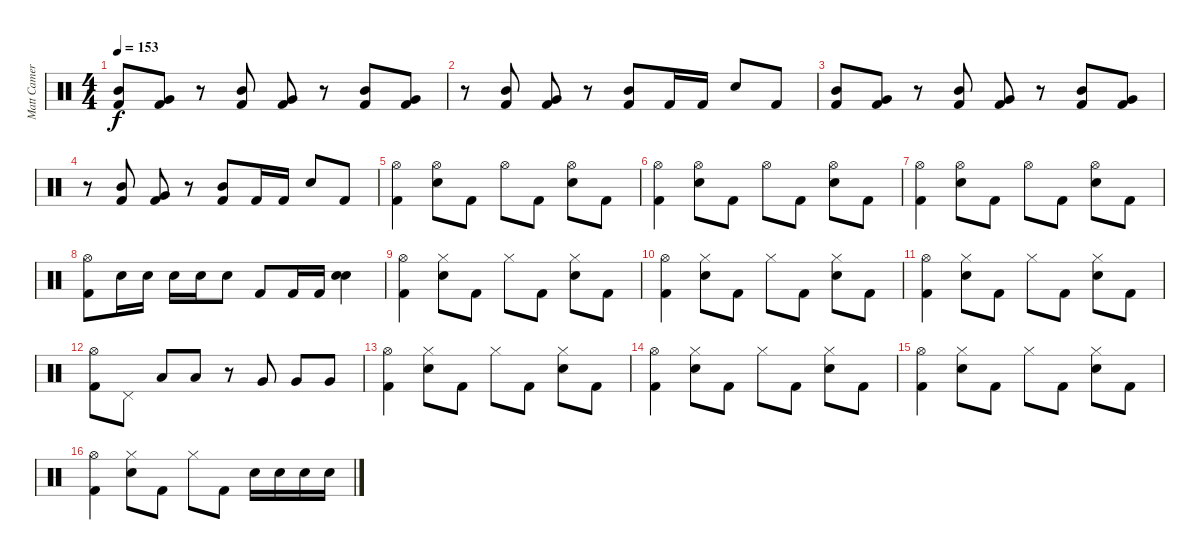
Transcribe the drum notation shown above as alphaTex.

\track ("Matt Cameron" "Matt Camer") {instrument percussion}
\staff {score}
\articulation defaults
\ts (4 4)
\tempo 153
\clef neutral
\ks c
("Mid Tom (hit)" "Kick (hit) 2").8{dy f} ("Very Low Tom (hit)" "Kick (hit) 2").8 r.8 ("Mid Tom (hit)" "Kick (hit) 2").8 ("Very Low Tom (hit)" "Kick (hit) 2").8 r.8 ("Mid Tom (hit)" "Kick (hit) 2").8 ("Very Low Tom (hit)" "Kick (hit) 2").8 |
r.8 ("Mid Tom (hit)" "Kick (hit) 2").8 ("Very Low Tom (hit)" "Kick (hit) 2").8 r.8 ("Mid Tom (hit)" "Kick (hit) 2").8 "Kick (hit) 2".16 "Kick (hit) 2".16 "Electric Snare (hit)".8 "Kick (hit) 2".8 |
("Mid Tom (hit)" "Kick (hit) 2").8 ("Very Low Tom (hit)" "Kick (hit) 2").8 r.8 ("Mid Tom (hit)" "Kick (hit) 2").8 ("Very Low Tom (hit)" "Kick (hit) 2").8 r.8 ("Mid Tom (hit)" "Kick (hit) 2").8 ("Very Low Tom (hit)" "Kick (hit) 2").8 |
r.8 ("Mid Tom (hit)" "Kick (hit) 2").8 ("Very Low Tom (hit)" "Kick (hit) 2").8 r.8 ("Mid Tom (hit)" "Kick (hit) 2").8 "Kick (hit) 2".16 "Kick (hit) 2".16 "Electric Snare (hit)".8 "Kick (hit) 2".8 |
("Hi-Hat (open)" "Kick (hit) 2").4 ("Hi-Hat (open)" "Electric Snare (hit)").8 "Kick (hit) 2".8 "Hi-Hat (open)".8 "Kick (hit) 2".8 ("Hi-Hat (open)" "Electric Snare (hit)").8 "Kick (hit) 2".8 |
("Hi-Hat (open)" "Kick (hit) 2").4 ("Hi-Hat (open)" "Electric Snare (hit)").8 "Kick (hit) 2".8 "Hi-Hat (open)".8 "Kick (hit) 2".8 ("Hi-Hat (open)" "Electric Snare (hit)").8 "Kick (hit) 2".8 |
("Hi-Hat (open)" "Kick (hit) 2").4 ("Hi-Hat (open)" "Electric Snare (hit)").8 "Kick (hit) 2".8 "Hi-Hat (open)".8 "Kick (hit) 2".8 ("Hi-Hat (open)" "Electric Snare (hit)").8 "Kick (hit) 2".8 |
("Hi-Hat (open)" "Kick (hit) 2").8 "Electric Snare (hit)".16 "Electric Snare (hit)".16 "Electric Snare (hit)".16 "Electric Snare (hit)".16 "Electric Snare (hit)".8 "Kick (hit) 2".8 "Kick (hit) 2".16 "Kick (hit) 2".16 ("Electric Snare (hit)" "Electric Snare (hit)").4 |
("Hi-Hat (open)" "Kick (hit) 2").4 ("Hi-Hat (closed)" "Electric Snare (hit)").8 "Kick (hit) 2".8 "Hi-Hat (closed)".8 "Kick (hit) 2".8 ("Hi-Hat (closed)" "Electric Snare (hit)").8 "Kick (hit) 2".8 |
("Hi-Hat (open)" "Kick (hit) 2").4 ("Hi-Hat (closed)" "Electric Snare (hit)").8 "Kick (hit) 2".8 "Hi-Hat (closed)".8 "Kick (hit) 2".8 ("Hi-Hat (closed)" "Electric Snare (hit)").8 "Kick (hit) 2".8 |
("Hi-Hat (open)" "Kick (hit) 2").4 ("Hi-Hat (closed)" "Electric Snare (hit)").8 "Kick (hit) 2".8 "Hi-Hat (closed)".8 "Kick (hit) 2".8 ("Hi-Hat (closed)" "Electric Snare (hit)").8 "Kick (hit) 2".8 |
("Hi-Hat (open)" "Kick (hit) 2").8 "Pedal Hi-Hat (hit)".8 "Low Floor Tom (hit)".8 "Low Floor Tom (hit)".8 r.8 "Very Low Tom (hit)".8 "Very Low Tom (hit)".8 "Very Low Tom (hit)".8 |
("Hi-Hat (open)" "Kick (hit) 2").4 ("Hi-Hat (closed)" "Electric Snare (hit)").8 "Kick (hit) 2".8 "Hi-Hat (closed)".8 "Kick (hit) 2".8 ("Hi-Hat (closed)" "Electric Snare (hit)").8 "Kick (hit) 2".8 |
("Hi-Hat (open)" "Kick (hit) 2").4 ("Hi-Hat (closed)" "Electric Snare (hit)").8 "Kick (hit) 2".8 "Hi-Hat (closed)".8 "Kick (hit) 2".8 ("Hi-Hat (closed)" "Electric Snare (hit)").8 "Kick (hit) 2".8 |
("Hi-Hat (open)" "Kick (hit) 2").4 ("Hi-Hat (closed)" "Electric Snare (hit)").8 "Kick (hit) 2".8 "Hi-Hat (closed)".8 "Kick (hit) 2".8 ("Hi-Hat (closed)" "Electric Snare (hit)").8 "Kick (hit) 2".8 |
("Hi-Hat (open)" "Kick (hit) 2").4 ("Hi-Hat (closed)" "Electric Snare (hit)").8 "Kick (hit) 2".8 "Hi-Hat (closed)".8 "Kick (hit) 2".8 "Electric Snare (hit)".16 "Electric Snare (hit)".16 "Electric Snare (hit)".16 "Electric Snare (hit)".16
